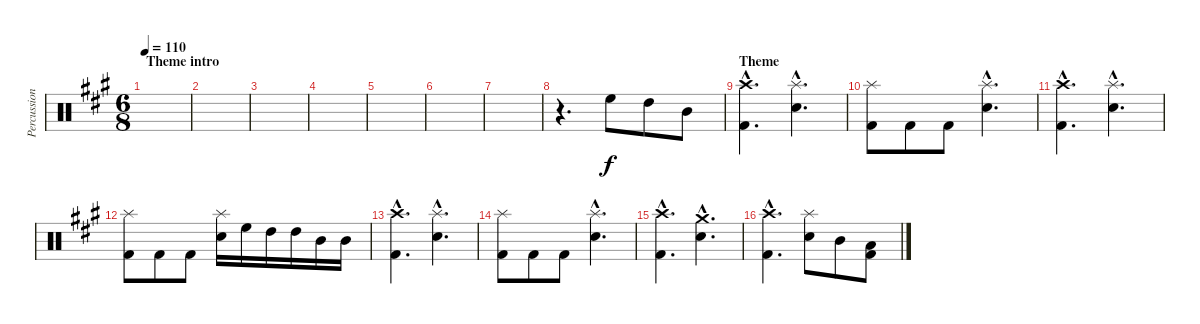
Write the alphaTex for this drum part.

\track ("Percussions" "Percussion") {instrument percussion}
\staff {score}
\articulation defaults
\ts (6 8)
\section ("" "Theme intro")
\tempo 110
\clef neutral
\ks a
|
|
|
|
|
|
|
r.4{d} "High Floor Tom (hit)".8 "High Tom (hit)".8 "Mid Tom (hit)".8 |
\section ("" "Theme")
("Crash high (hit)"{hac} "Kick (hit) 2"{hac}).4{d} ("Splash (hit)"{hac} "Electric Snare (hit)"{hac}).4{d} |
("Splash (hit)" "Kick (hit) 2").8 "Kick (hit) 2".8 "Kick (hit) 2".8 ("Splash (hit)"{hac} "Electric Snare (hit)"{hac}).4{d} |
("Crash high (hit)"{hac} "Kick (hit) 2"{hac}).4{d} ("Splash (hit)"{hac} "Electric Snare (hit)"{hac}).4{d} |
("Splash (hit)" "Kick (hit) 2").8 "Kick (hit) 2".8 "Kick (hit) 2".8 ("Splash (hit)" "Electric Snare (hit)").16 "High Floor Tom (hit)".16 "High Tom (hit)".16 "High Tom (hit)".16 "Mid Tom (hit)".16 "Mid Tom (hit)".16 |
("Crash high (hit)"{hac} "Kick (hit) 2"{hac}).4{d} ("Splash (hit)"{hac} "Electric Snare (hit)"{hac}).4{d} |
("Splash (hit)" "Kick (hit) 2").8 "Kick (hit) 2".8 "Kick (hit) 2".8 ("Splash (hit)"{hac} "Electric Snare (hit)"{hac}).4{d} |
("Crash high (hit)"{hac} "Kick (hit) 2"{hac}).4{d} ("Crash medium (hit)"{hac} "Electric Snare (hit)"{hac}).4{d} |
("Crash high (hit)"{hac} "Kick (hit) 2"{hac}).4{d} ("Splash (hit)" "Electric Snare (hit)").8 "Mid Tom (hit)".8 ("Low Tom (hit)" "Kick (hit) 2").8
